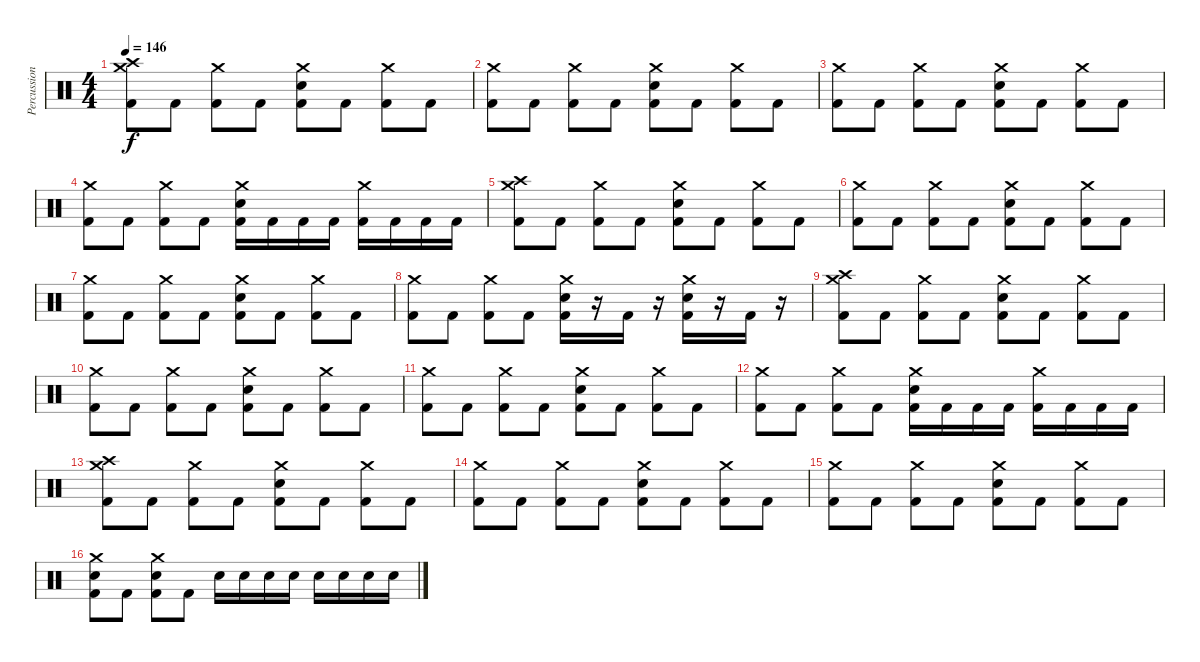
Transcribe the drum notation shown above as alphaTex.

\track ("Percussion" "Percussion") {instrument percussion}
\staff {score}
\articulation defaults
\ts (4 4)
\tempo 146
\clef neutral
\ks c
("Crash high (hit)" "Crash medium (hit)" "Kick (hit) 2").8{dy f} "Kick (hit) 2".8 ("Crash medium (hit)" "Kick (hit) 2").8 "Kick (hit) 2".8 ("Crash medium (hit)" "Snare (hit) 2" "Kick (hit) 2").8 "Kick (hit) 2".8 ("Crash medium (hit)" "Kick (hit) 2").8 "Kick (hit) 2".8 |
("Crash medium (hit)" "Kick (hit) 2").8 "Kick (hit) 2".8 ("Crash medium (hit)" "Kick (hit) 2").8 "Kick (hit) 2".8 ("Crash medium (hit)" "Snare (hit) 2" "Kick (hit) 2").8 "Kick (hit) 2".8 ("Crash medium (hit)" "Kick (hit) 2").8 "Kick (hit) 2".8 |
("Crash medium (hit)" "Kick (hit) 2").8 "Kick (hit) 2".8 ("Crash medium (hit)" "Kick (hit) 2").8 "Kick (hit) 2".8 ("Crash medium (hit)" "Snare (hit) 2" "Kick (hit) 2").8 "Kick (hit) 2".8 ("Crash medium (hit)" "Kick (hit) 2").8 "Kick (hit) 2".8 |
("Crash medium (hit)" "Kick (hit) 2").8 "Kick (hit) 2".8 ("Crash medium (hit)" "Kick (hit) 2").8 "Kick (hit) 2".8 ("Crash medium (hit)" "Snare (hit) 2" "Kick (hit) 2").16 "Kick (hit) 2".16 "Kick (hit) 2".16 "Kick (hit) 2".16 ("Crash medium (hit)" "Kick (hit) 2").16 "Kick (hit) 2".16 "Kick (hit) 2".16 "Kick (hit) 2".16 |
("Crash high (hit)" "Crash medium (hit)" "Kick (hit) 2").8 "Kick (hit) 2".8 ("Crash medium (hit)" "Kick (hit) 2").8 "Kick (hit) 2".8 ("Crash medium (hit)" "Snare (hit) 2" "Kick (hit) 2").8 "Kick (hit) 2".8 ("Crash medium (hit)" "Kick (hit) 2").8 "Kick (hit) 2".8 |
("Crash medium (hit)" "Kick (hit) 2").8 "Kick (hit) 2".8 ("Crash medium (hit)" "Kick (hit) 2").8 "Kick (hit) 2".8 ("Crash medium (hit)" "Snare (hit) 2" "Kick (hit) 2").8 "Kick (hit) 2".8 ("Crash medium (hit)" "Kick (hit) 2").8 "Kick (hit) 2".8 |
("Crash medium (hit)" "Kick (hit) 2").8 "Kick (hit) 2".8 ("Crash medium (hit)" "Kick (hit) 2").8 "Kick (hit) 2".8 ("Crash medium (hit)" "Snare (hit) 2" "Kick (hit) 2").8 "Kick (hit) 2".8 ("Crash medium (hit)" "Kick (hit) 2").8 "Kick (hit) 2".8 |
("Crash medium (hit)" "Kick (hit) 2").8 "Kick (hit) 2".8 ("Crash medium (hit)" "Kick (hit) 2").8 "Kick (hit) 2".8 ("Crash medium (hit)" "Snare (hit) 2" "Kick (hit) 2").16 r.16 "Kick (hit) 2".16 r.16 ("Crash medium (hit)" "Snare (hit) 2" "Kick (hit) 2").16 r.16 "Kick (hit) 2".16 r.16 |
("Crash high (hit)" "Crash medium (hit)" "Kick (hit) 2").8 "Kick (hit) 2".8 ("Crash medium (hit)" "Kick (hit) 2").8 "Kick (hit) 2".8 ("Crash medium (hit)" "Snare (hit) 2" "Kick (hit) 2").8 "Kick (hit) 2".8 ("Crash medium (hit)" "Kick (hit) 2").8 "Kick (hit) 2".8 |
("Crash medium (hit)" "Kick (hit) 2").8 "Kick (hit) 2".8 ("Crash medium (hit)" "Kick (hit) 2").8 "Kick (hit) 2".8 ("Crash medium (hit)" "Snare (hit) 2" "Kick (hit) 2").8 "Kick (hit) 2".8 ("Crash medium (hit)" "Kick (hit) 2").8 "Kick (hit) 2".8 |
("Crash medium (hit)" "Kick (hit) 2").8 "Kick (hit) 2".8 ("Crash medium (hit)" "Kick (hit) 2").8 "Kick (hit) 2".8 ("Crash medium (hit)" "Snare (hit) 2" "Kick (hit) 2").8 "Kick (hit) 2".8 ("Crash medium (hit)" "Kick (hit) 2").8 "Kick (hit) 2".8 |
("Crash medium (hit)" "Kick (hit) 2").8 "Kick (hit) 2".8 ("Crash medium (hit)" "Kick (hit) 2").8 "Kick (hit) 2".8 ("Crash medium (hit)" "Snare (hit) 2" "Kick (hit) 2").16 "Kick (hit) 2".16 "Kick (hit) 2".16 "Kick (hit) 2".16 ("Crash medium (hit)" "Kick (hit) 2").16 "Kick (hit) 2".16 "Kick (hit) 2".16 "Kick (hit) 2".16 |
("Crash high (hit)" "Crash medium (hit)" "Kick (hit) 2").8 "Kick (hit) 2".8 ("Crash medium (hit)" "Kick (hit) 2").8 "Kick (hit) 2".8 ("Crash medium (hit)" "Snare (hit) 2" "Kick (hit) 2").8 "Kick (hit) 2".8 ("Crash medium (hit)" "Kick (hit) 2").8 "Kick (hit) 2".8 |
("Crash medium (hit)" "Kick (hit) 2").8 "Kick (hit) 2".8 ("Crash medium (hit)" "Kick (hit) 2").8 "Kick (hit) 2".8 ("Crash medium (hit)" "Snare (hit) 2" "Kick (hit) 2").8 "Kick (hit) 2".8 ("Crash medium (hit)" "Kick (hit) 2").8 "Kick (hit) 2".8 |
("Crash medium (hit)" "Kick (hit) 2").8 "Kick (hit) 2".8 ("Crash medium (hit)" "Kick (hit) 2").8 "Kick (hit) 2".8 ("Crash medium (hit)" "Snare (hit) 2" "Kick (hit) 2").8 "Kick (hit) 2".8 ("Crash medium (hit)" "Kick (hit) 2").8 "Kick (hit) 2".8 |
("Crash medium (hit)" "Snare (hit) 2" "Kick (hit) 2").8 "Kick (hit) 2".8 ("Crash medium (hit)" "Snare (hit) 2" "Kick (hit) 2").8 "Kick (hit) 2".8 "Snare (hit) 2".16 "Snare (hit) 2".16 "Snare (hit) 2".16 "Snare (hit) 2".16 "Snare (hit) 2".16 "Snare (hit) 2".16 "Snare (hit) 2".16 "Snare (hit) 2".16
